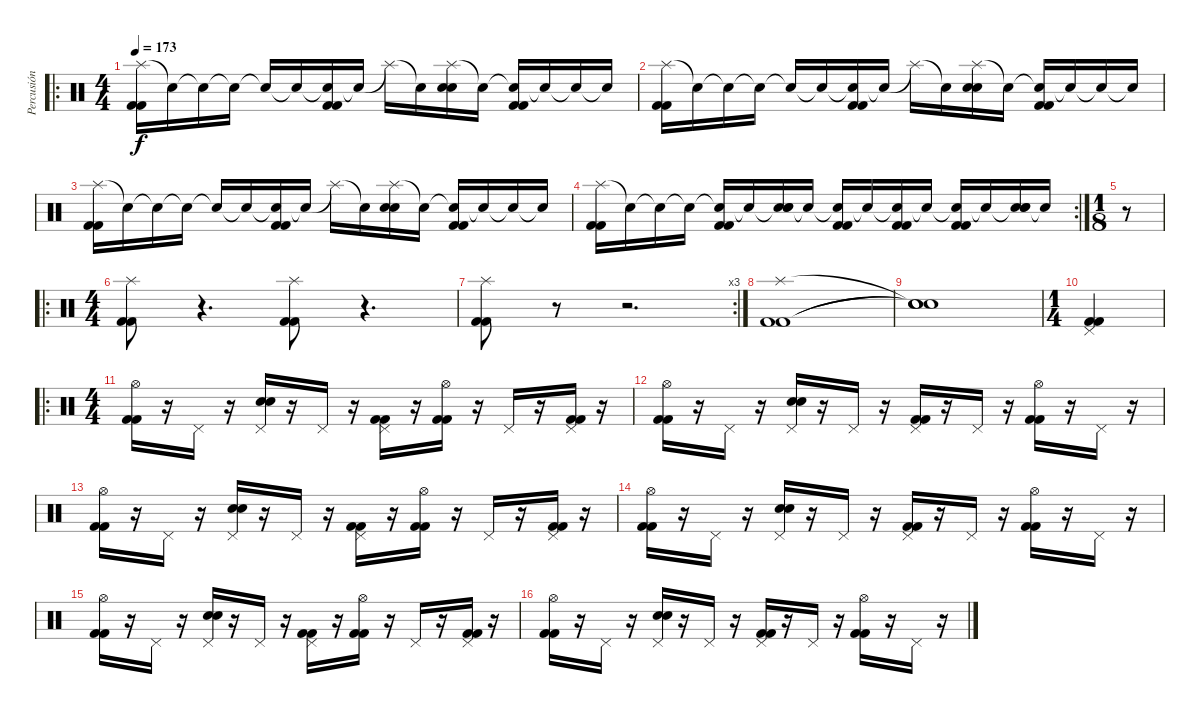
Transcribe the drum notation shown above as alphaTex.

\track ("Percusión" "Percusión") {instrument percussion}
\staff {score}
\articulation defaults
\ro
\ts (4 4)
\tempo 173
\clef neutral
\ks c
("Splash (hit)" "Kick (hit) 2" "Kick (hit) 2").16{dy f} "Snare (hit)"{t}.16 "Snare (hit)"{t}.16 "Snare (hit)"{t}.16 "Snare (hit)"{t}.16 "Snare (hit)"{t}.16 ("Snare (hit)"{t} "Kick (hit) 2" "Kick (hit) 2").16 "Snare (hit)"{t}.16 "Splash (hit)"{t}.16 "Snare (hit)"{t}.16 ("Splash (hit)" "Electric Snare (hit)" "Electric Snare (hit)").16 "Snare (hit)"{t}.16 ("Snare (hit)"{t} "Kick (hit) 2" "Kick (hit) 2").16 "Snare (hit)"{t}.16 "Snare (hit)"{t}.16 "Snare (hit)"{t}.16 |
("Splash (hit)" "Kick (hit) 2" "Kick (hit) 2").16 "Snare (hit)"{t}.16 "Snare (hit)"{t}.16 "Snare (hit)"{t}.16 "Snare (hit)"{t}.16 "Snare (hit)"{t}.16 ("Snare (hit)"{t} "Kick (hit) 2" "Kick (hit) 2").16 "Snare (hit)"{t}.16 "Splash (hit)"{t}.16 "Snare (hit)"{t}.16 ("Splash (hit)" "Electric Snare (hit)" "Electric Snare (hit)").16 "Snare (hit)"{t}.16 ("Snare (hit)"{t} "Kick (hit) 2" "Kick (hit) 2").16 "Snare (hit)"{t}.16 "Snare (hit)"{t}.16 "Snare (hit)"{t}.16 |
("Splash (hit)" "Kick (hit) 2" "Kick (hit) 2").16 "Snare (hit)"{t}.16 "Snare (hit)"{t}.16 "Snare (hit)"{t}.16 "Snare (hit)"{t}.16 "Snare (hit)"{t}.16 ("Snare (hit)"{t} "Kick (hit) 2" "Kick (hit) 2").16 "Snare (hit)"{t}.16 "Splash (hit)"{t}.16 "Snare (hit)"{t}.16 ("Splash (hit)" "Electric Snare (hit)" "Electric Snare (hit)").16 "Snare (hit)"{t}.16 ("Snare (hit)"{t} "Kick (hit) 2" "Kick (hit) 2").16 "Snare (hit)"{t}.16 "Snare (hit)"{t}.16 "Snare (hit)"{t}.16 |
\rc 2
("Splash (hit)" "Kick (hit) 2" "Kick (hit) 2").16 "Snare (hit)"{t}.16 "Snare (hit)"{t}.16 "Snare (hit)"{t}.16 ("Snare (hit)"{t} "Kick (hit) 2" "Kick (hit) 2").16 "Snare (hit)"{t}.16 ("Snare (hit)"{t} "Electric Snare (hit)" "Electric Snare (hit)").16 "Snare (hit)"{t}.16 ("Snare (hit)"{t} "Kick (hit) 2" "Kick (hit) 2").16 "Snare (hit)"{t}.16 ("Snare (hit)"{t} "Kick (hit) 2" "Kick (hit) 2").16 "Snare (hit)"{t}.16 ("Snare (hit)"{t} "Kick (hit) 2" "Kick (hit) 2").16 "Snare (hit)"{t}.16 ("Snare (hit)"{t} "Electric Snare (hit)" "Electric Snare (hit)").16 "Snare (hit)"{t}.16 |
\ts (1 8)
r.8 |
\ro
\ts (4 4)
("Splash (hit)" "Kick (hit) 2" "Kick (hit) 2").8 r.4{d} ("Splash (hit)" "Kick (hit) 2" "Kick (hit) 2").8 r.4{d} |
\rc 3
("Splash (hit)" "Kick (hit) 2" "Kick (hit) 2").8 r.8 r.2{d} |
("Splash (hit)" "Kick (hit) 2" "Kick (hit) 2").1 |
("Snare (hit)"{t} "Snare (hit)"{t} "Snare (hit)"{t}).1 |
\ts (1 4)
("Pedal Hi-Hat (hit)" "Kick (hit) 2" "Kick (hit) 2").4 |
\ro
\ts (4 4)
("Hi-Hat (open)" "Kick (hit) 2" "Kick (hit) 2").16 r.16 "Pedal Hi-Hat (hit)".16 r.16 ("Pedal Hi-Hat (hit)" "Electric Snare (hit)" "Electric Snare (hit)").16 r.16 "Pedal Hi-Hat (hit)".16 r.16 ("Pedal Hi-Hat (hit)" "Kick (hit) 2" "Kick (hit) 2").16 r.16 ("Hi-Hat (open)" "Kick (hit) 2" "Kick (hit) 2").16 r.16 "Pedal Hi-Hat (hit)".16 r.16 ("Pedal Hi-Hat (hit)" "Kick (hit) 2" "Kick (hit) 2").16 r.16 |
("Hi-Hat (open)" "Kick (hit) 2" "Kick (hit) 2").16 r.16 "Pedal Hi-Hat (hit)".16 r.16 ("Pedal Hi-Hat (hit)" "Electric Snare (hit)" "Electric Snare (hit)").16 r.16 "Pedal Hi-Hat (hit)".16 r.16 ("Pedal Hi-Hat (hit)" "Kick (hit) 2" "Kick (hit) 2").16 r.16 "Pedal Hi-Hat (hit)".16 r.16 ("Hi-Hat (open)" "Kick (hit) 2" "Kick (hit) 2").16 r.16 "Pedal Hi-Hat (hit)".16 r.16 |
("Hi-Hat (open)" "Kick (hit) 2" "Kick (hit) 2").16 r.16 "Pedal Hi-Hat (hit)".16 r.16 ("Pedal Hi-Hat (hit)" "Electric Snare (hit)" "Electric Snare (hit)").16 r.16 "Pedal Hi-Hat (hit)".16 r.16 ("Pedal Hi-Hat (hit)" "Kick (hit) 2" "Kick (hit) 2").16 r.16 ("Hi-Hat (open)" "Kick (hit) 2" "Kick (hit) 2").16 r.16 "Pedal Hi-Hat (hit)".16 r.16 ("Pedal Hi-Hat (hit)" "Kick (hit) 2" "Kick (hit) 2").16 r.16 |
("Hi-Hat (open)" "Kick (hit) 2" "Kick (hit) 2").16 r.16 "Pedal Hi-Hat (hit)".16 r.16 ("Pedal Hi-Hat (hit)" "Electric Snare (hit)" "Electric Snare (hit)").16 r.16 "Pedal Hi-Hat (hit)".16 r.16 ("Pedal Hi-Hat (hit)" "Kick (hit) 2" "Kick (hit) 2").16 r.16 "Pedal Hi-Hat (hit)".16 r.16 ("Hi-Hat (open)" "Kick (hit) 2" "Kick (hit) 2").16 r.16 "Pedal Hi-Hat (hit)".16 r.16 |
("Hi-Hat (open)" "Kick (hit) 2" "Kick (hit) 2").16 r.16 "Pedal Hi-Hat (hit)".16 r.16 ("Pedal Hi-Hat (hit)" "Electric Snare (hit)" "Electric Snare (hit)").16 r.16 "Pedal Hi-Hat (hit)".16 r.16 ("Pedal Hi-Hat (hit)" "Kick (hit) 2" "Kick (hit) 2").16 r.16 ("Hi-Hat (open)" "Kick (hit) 2" "Kick (hit) 2").16 r.16 "Pedal Hi-Hat (hit)".16 r.16 ("Pedal Hi-Hat (hit)" "Kick (hit) 2" "Kick (hit) 2").16 r.16 |
("Hi-Hat (open)" "Kick (hit) 2" "Kick (hit) 2").16 r.16 "Pedal Hi-Hat (hit)".16 r.16 ("Pedal Hi-Hat (hit)" "Electric Snare (hit)" "Electric Snare (hit)").16 r.16 "Pedal Hi-Hat (hit)".16 r.16 ("Pedal Hi-Hat (hit)" "Kick (hit) 2" "Kick (hit) 2").16 r.16 "Pedal Hi-Hat (hit)".16 r.16 ("Hi-Hat (open)" "Kick (hit) 2" "Kick (hit) 2").16 r.16 "Pedal Hi-Hat (hit)".16 r.16
